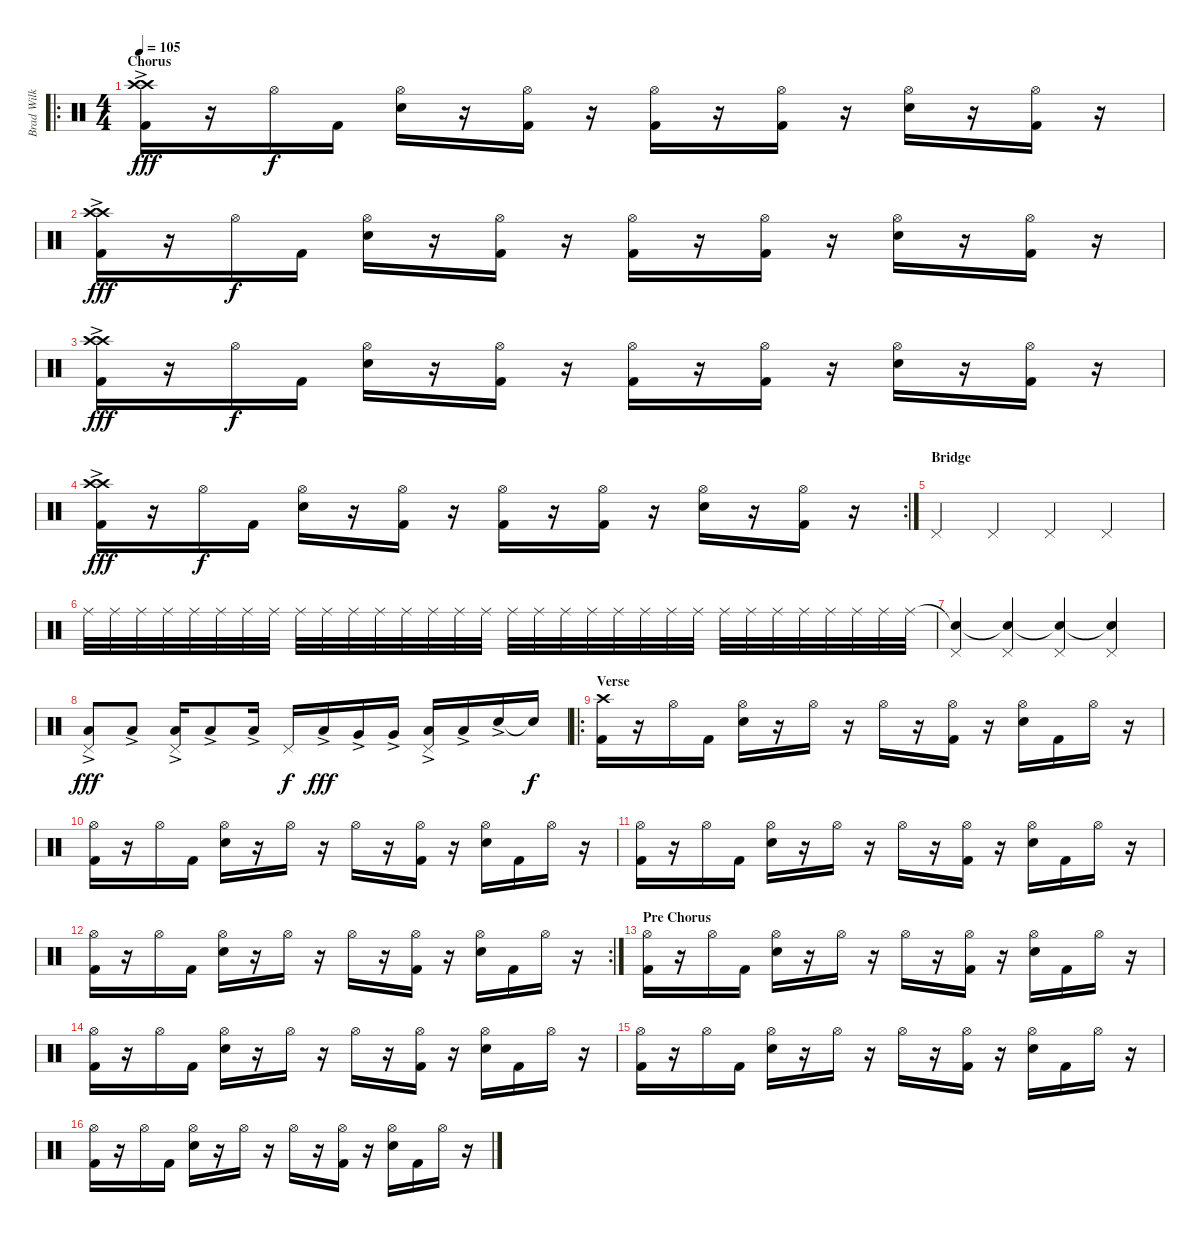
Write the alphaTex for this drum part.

\track ("Brad Wilk - Drums" "Brad Wilk ") {instrument percussion}
\staff {score}
\articulation defaults
\ro
\ts (4 4)
\section ("" "Chorus")
\tempo 105
\clef neutral
\ks c
("Crash high (hit)"{ac} "Crash high (hit)"{ac} "Kick (hit) 2").16{dy fff} r.16 "Hi-Hat (open)".16{dy f} "Kick (hit) 2".16 ("Hi-Hat (open)" "Electric Snare (hit)").16 r.16 ("Hi-Hat (open)" "Kick (hit) 2").16 r.16 ("Hi-Hat (open)" "Kick (hit) 2").16 r.16 ("Hi-Hat (open)" "Kick (hit) 2").16 r.16 ("Hi-Hat (open)" "Electric Snare (hit)").16 r.16 ("Hi-Hat (open)" "Kick (hit) 2").16 r.16 |
("Crash high (hit)"{ac} "Crash high (hit)"{ac} "Kick (hit) 2").16{dy fff} r.16 "Hi-Hat (open)".16{dy f} "Kick (hit) 2".16 ("Hi-Hat (open)" "Electric Snare (hit)").16 r.16 ("Hi-Hat (open)" "Kick (hit) 2").16 r.16 ("Hi-Hat (open)" "Kick (hit) 2").16 r.16 ("Hi-Hat (open)" "Kick (hit) 2").16 r.16 ("Hi-Hat (open)" "Electric Snare (hit)").16 r.16 ("Hi-Hat (open)" "Kick (hit) 2").16 r.16 |
("Crash high (hit)"{ac} "Crash high (hit)"{ac} "Kick (hit) 2").16{dy fff} r.16 "Hi-Hat (open)".16{dy f} "Kick (hit) 2".16 ("Hi-Hat (open)" "Electric Snare (hit)").16 r.16 ("Hi-Hat (open)" "Kick (hit) 2").16 r.16 ("Hi-Hat (open)" "Kick (hit) 2").16 r.16 ("Hi-Hat (open)" "Kick (hit) 2").16 r.16 ("Hi-Hat (open)" "Electric Snare (hit)").16 r.16 ("Hi-Hat (open)" "Kick (hit) 2").16 r.16 |
\rc 2
("Crash high (hit)"{ac} "Crash high (hit)"{ac} "Kick (hit) 2").16{dy fff} r.16 "Hi-Hat (open)".16{dy f} "Kick (hit) 2".16 ("Hi-Hat (open)" "Electric Snare (hit)").16 r.16 ("Hi-Hat (open)" "Kick (hit) 2").16 r.16 ("Hi-Hat (open)" "Kick (hit) 2").16 r.16 ("Hi-Hat (open)" "Kick (hit) 2").16 r.16 ("Hi-Hat (open)" "Electric Snare (hit)").16 r.16 ("Hi-Hat (open)" "Kick (hit) 2").16 r.16 |
\section ("" "Bridge")
"Pedal Hi-Hat (hit)".4 "Pedal Hi-Hat (hit)".4 "Pedal Hi-Hat (hit)".4 "Pedal Hi-Hat (hit)".4 |
"Ride (middle)".32 "Ride (middle)".32 "Ride (middle)".32 "Ride (middle)".32 "Ride (middle)".32 "Ride (middle)".32 "Ride (middle)".32 "Ride (middle)".32 "Ride (middle)".32 "Ride (middle)".32 "Ride (middle)".32 "Ride (middle)".32 "Ride (middle)".32 "Ride (middle)".32 "Ride (middle)".32 "Ride (middle)".32 "Ride (middle)".32 "Ride (middle)".32 "Ride (middle)".32 "Ride (middle)".32 "Ride (middle)".32 "Ride (middle)".32 "Ride (middle)".32 "Ride (middle)".32 "Ride (middle)".32 "Ride (middle)".32 "Ride (middle)".32 "Ride (middle)".32 "Ride (middle)".32 "Ride (middle)".32 "Ride (middle)".32 "Ride (middle)".32 |
("Snare (hit)"{t} "Pedal Hi-Hat (hit)").4 ("Snare (hit)"{t} "Pedal Hi-Hat (hit)").4 ("Snare (hit)"{t} "Pedal Hi-Hat (hit)").4 ("Snare (hit)"{t} "Pedal Hi-Hat (hit)").4 |
("Pedal Hi-Hat (hit)" "Low Floor Tom (hit)"{ac}).8{dy fff volume 16} "Low Floor Tom (hit)"{ac}.8 ("Pedal Hi-Hat (hit)" "Low Floor Tom (hit)"{ac}).16 "Low Floor Tom (hit)"{ac}.8 "Low Floor Tom (hit)"{ac}.16 "Pedal Hi-Hat (hit)".16{dy f} "Low Floor Tom (hit)"{ac}.16{dy fff} "Very Low Tom (hit)"{ac}.16 "Very Low Tom (hit)"{ac}.16 ("Pedal Hi-Hat (hit)" "Low Tom (hit)"{ac}).16 "Low Tom (hit)"{ac}.16 "Electric Snare (hit)"{ac}.16 "Electric Snare (hit)"{t}.16{dy f} |
\ro
\section ("" "Verse")
("Crash high (hit)" "Kick (hit) 2").16{volume 14} r.16 "Hi-Hat (open)".16 "Kick (hit) 2".16 ("Hi-Hat (open)" "Electric Snare (hit)").16 r.16 "Hi-Hat (open)".16 r.16 "Hi-Hat (open)".16 r.16 ("Hi-Hat (open)" "Kick (hit) 2").16 r.16 ("Hi-Hat (open)" "Electric Snare (hit)").16 "Kick (hit) 2".16 "Hi-Hat (open)".16 r.16 |
("Hi-Hat (open)" "Kick (hit) 2").16 r.16 "Hi-Hat (open)".16 "Kick (hit) 2".16 ("Hi-Hat (open)" "Electric Snare (hit)").16 r.16 "Hi-Hat (open)".16 r.16 "Hi-Hat (open)".16 r.16 ("Hi-Hat (open)" "Kick (hit) 2").16 r.16 ("Hi-Hat (open)" "Electric Snare (hit)").16 "Kick (hit) 2".16 "Hi-Hat (open)".16 r.16 |
("Hi-Hat (open)" "Kick (hit) 2").16 r.16 "Hi-Hat (open)".16 "Kick (hit) 2".16 ("Hi-Hat (open)" "Electric Snare (hit)").16 r.16 "Hi-Hat (open)".16 r.16 "Hi-Hat (open)".16 r.16 ("Hi-Hat (open)" "Kick (hit) 2").16 r.16 ("Hi-Hat (open)" "Electric Snare (hit)").16 "Kick (hit) 2".16 "Hi-Hat (open)".16 r.16 |
\rc 2
("Hi-Hat (open)" "Kick (hit) 2").16 r.16 "Hi-Hat (open)".16 "Kick (hit) 2".16 ("Hi-Hat (open)" "Electric Snare (hit)").16 r.16 "Hi-Hat (open)".16 r.16 "Hi-Hat (open)".16 r.16 ("Hi-Hat (open)" "Kick (hit) 2").16 r.16 ("Hi-Hat (open)" "Electric Snare (hit)").16 "Kick (hit) 2".16 "Hi-Hat (open)".16 r.16 |
\section ("" "Pre Chorus")
("Hi-Hat (open)" "Kick (hit) 2").16 r.16 "Hi-Hat (open)".16 "Kick (hit) 2".16 ("Hi-Hat (open)" "Electric Snare (hit)").16 r.16 "Hi-Hat (open)".16 r.16 "Hi-Hat (open)".16 r.16 ("Hi-Hat (open)" "Kick (hit) 2").16 r.16 ("Hi-Hat (open)" "Electric Snare (hit)").16 "Kick (hit) 2".16 "Hi-Hat (open)".16 r.16 |
("Hi-Hat (open)" "Kick (hit) 2").16 r.16 "Hi-Hat (open)".16 "Kick (hit) 2".16 ("Hi-Hat (open)" "Electric Snare (hit)").16 r.16 "Hi-Hat (open)".16 r.16 "Hi-Hat (open)".16 r.16 ("Hi-Hat (open)" "Kick (hit) 2").16 r.16 ("Hi-Hat (open)" "Electric Snare (hit)").16 "Kick (hit) 2".16 "Hi-Hat (open)".16 r.16 |
("Hi-Hat (open)" "Kick (hit) 2").16 r.16 "Hi-Hat (open)".16 "Kick (hit) 2".16 ("Hi-Hat (open)" "Electric Snare (hit)").16 r.16 "Hi-Hat (open)".16 r.16 "Hi-Hat (open)".16 r.16 ("Hi-Hat (open)" "Kick (hit) 2").16 r.16 ("Hi-Hat (open)" "Electric Snare (hit)").16 "Kick (hit) 2".16 "Hi-Hat (open)".16 r.16 |
("Hi-Hat (open)" "Kick (hit) 2").16 r.16 "Hi-Hat (open)".16 "Kick (hit) 2".16 ("Hi-Hat (open)" "Electric Snare (hit)").16 r.16 "Hi-Hat (open)".16 r.16 "Hi-Hat (open)".16 r.16 ("Hi-Hat (open)" "Kick (hit) 2").16 r.16 ("Hi-Hat (open)" "Electric Snare (hit)").16 "Kick (hit) 2".16 "Hi-Hat (open)".16 r.16
